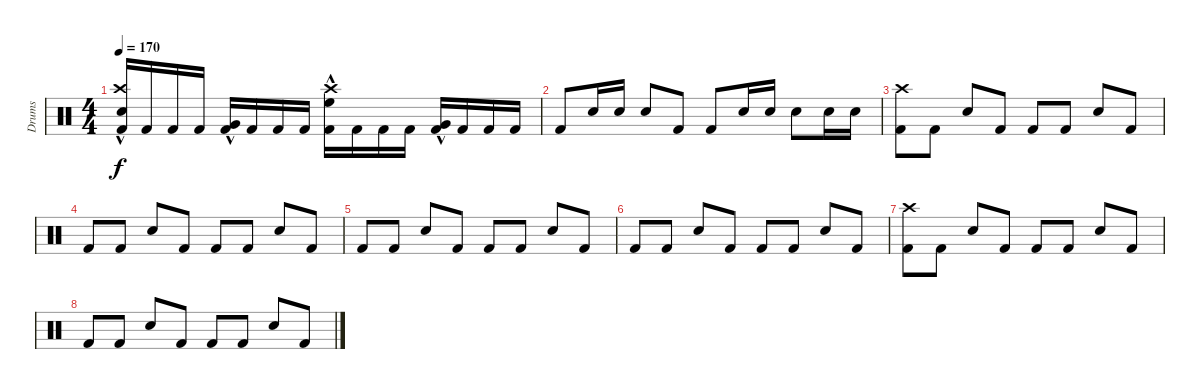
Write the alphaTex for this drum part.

\track ("Drums" "Drums") {instrument percussion}
\staff {score}
\articulation defaults
\ts (4 4)
\tempo 170
\clef neutral
\ks c
("Kick (hit) 2" "Crash high (hit)"{hac} "Snare (hit) 2"{hac}).16{dy f} "Kick (hit) 2".16 "Kick (hit) 2".16 "Kick (hit) 2".16 ("Kick (hit) 2" "Very Low Tom (hit)"{hac}).16 "Kick (hit) 2".16 "Kick (hit) 2".16 "Kick (hit) 2".16 ("Kick (hit) 2" "Crash high (hit)"{hac} "High Floor Tom (hit)"{hac}).16 "Kick (hit) 2".16 "Kick (hit) 2".16 "Kick (hit) 2".16 ("Kick (hit) 2" "Very Low Tom (hit)"{hac}).16 "Kick (hit) 2".16 "Kick (hit) 2".16 "Kick (hit) 2".16 |
"Kick (hit) 2".8 "Snare (hit) 2".16 "Snare (hit) 2".16 "Snare (hit) 2".8 "Kick (hit) 2".8 "Kick (hit) 2".8 "Snare (hit) 2".16 "Snare (hit) 2".16 "Snare (hit) 2".8 "Snare (hit) 2".16 "Snare (hit) 2".16 |
("Kick (hit) 2" "Crash high (hit)").8 "Kick (hit) 2".8 "Snare (hit) 2".8 "Kick (hit) 2".8 "Kick (hit) 2".8 "Kick (hit) 2".8 "Snare (hit) 2".8 "Kick (hit) 2".8 |
"Kick (hit) 2".8 "Kick (hit) 2".8 "Snare (hit) 2".8 "Kick (hit) 2".8 "Kick (hit) 2".8 "Kick (hit) 2".8 "Snare (hit) 2".8 "Kick (hit) 2".8 |
"Kick (hit) 2".8 "Kick (hit) 2".8 "Snare (hit) 2".8 "Kick (hit) 2".8 "Kick (hit) 2".8 "Kick (hit) 2".8 "Snare (hit) 2".8 "Kick (hit) 2".8 |
"Kick (hit) 2".8 "Kick (hit) 2".8 "Snare (hit) 2".8 "Kick (hit) 2".8 "Kick (hit) 2".8 "Kick (hit) 2".8 "Snare (hit) 2".8 "Kick (hit) 2".8 |
("Kick (hit) 2" "Crash high (hit)").8 "Kick (hit) 2".8 "Snare (hit) 2".8 "Kick (hit) 2".8 "Kick (hit) 2".8 "Kick (hit) 2".8 "Snare (hit) 2".8 "Kick (hit) 2".8 |
"Kick (hit) 2".8 "Kick (hit) 2".8 "Snare (hit) 2".8 "Kick (hit) 2".8 "Kick (hit) 2".8 "Kick (hit) 2".8 "Snare (hit) 2".8 "Kick (hit) 2".8
